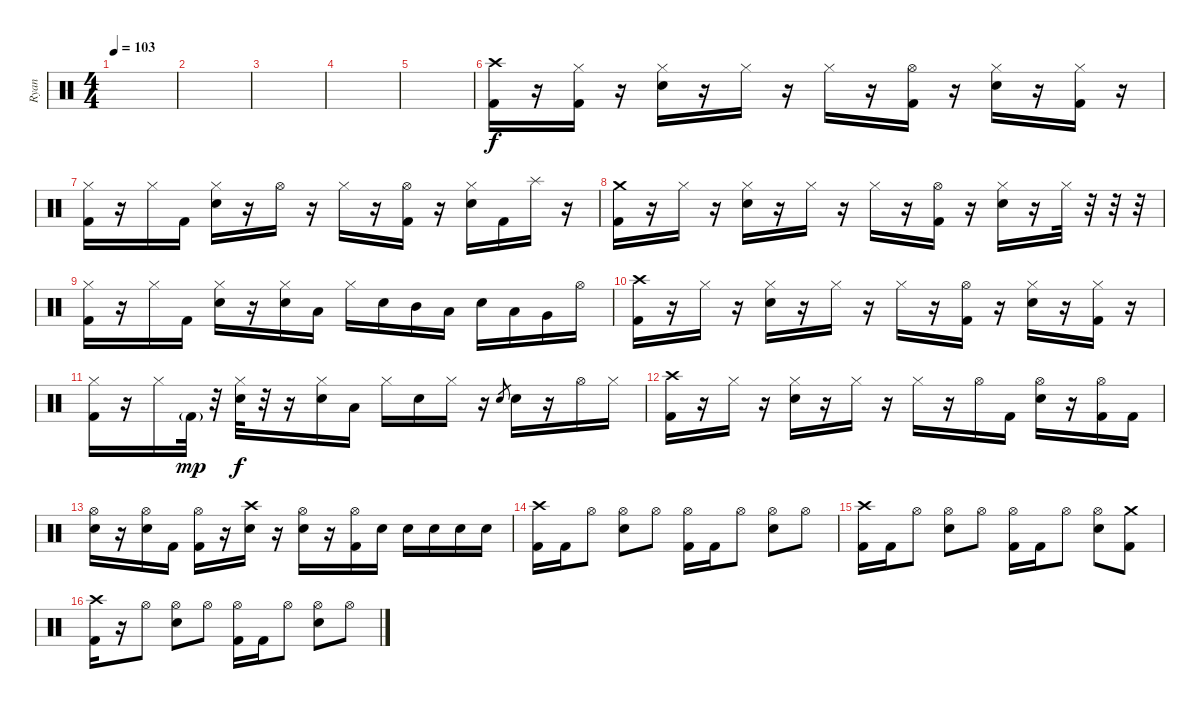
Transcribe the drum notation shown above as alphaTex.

\track ("Ryan" "Ryan") {instrument percussion}
\staff {score}
\articulation defaults
\ts (4 4)
\tempo 103
\clef neutral
\ks c
|
|
|
|
|
("Crash high (hit)" "Kick (hit) 2").16 r.16 ("Hi-Hat (closed)" "Kick (hit) 2").16 r.16 ("Hi-Hat (closed)" "Electric Snare (hit)").16 r.16 "Hi-Hat (closed)".16 r.16 "Hi-Hat (closed)".16 r.16 ("Hi-Hat (open)" "Kick (hit) 2").16 r.16 ("Hi-Hat (closed)" "Electric Snare (hit)").16 r.16 ("Hi-Hat (closed)" "Kick (hit) 2").16 r.16 |
("Hi-Hat (closed)" "Kick (hit) 2").16 r.16 "Hi-Hat (closed)".16 "Kick (hit) 2".16 ("Hi-Hat (closed)" "Electric Snare (hit)").16 r.16 "Hi-Hat (open)".16 r.16 "Hi-Hat (closed)".16 r.16 ("Hi-Hat (open)" "Kick (hit) 2").16 r.16 ("Hi-Hat (closed)" "Electric Snare (hit)").16 "Kick (hit) 2".16 "Splash (hit)".16 r.16 |
("Crash medium (hit)" "Kick (hit) 2").16 r.16 "Hi-Hat (closed)".16 r.16 ("Hi-Hat (closed)" "Electric Snare (hit)").16 r.16 "Hi-Hat (closed)".16 r.16 "Hi-Hat (closed)".16 r.16 ("Hi-Hat (open)" "Kick (hit) 2").16 r.16 ("Hi-Hat (closed)" "Electric Snare (hit)").16 r.16 "Hi-Hat (closed)".32 r.32 r.32 r.32 |
("Hi-Hat (closed)" "Kick (hit) 2").16 r.16 "Hi-Hat (closed)".16 "Kick (hit) 2".16 ("Hi-Hat (closed)" "Electric Snare (hit)").16 r.16 ("Hi-Hat (closed)" "Electric Snare (hit)").16 "Low Tom (hit)".16 "Hi-Hat (closed)".16 "Electric Snare (hit)".16 "Mid Tom (hit)".16 "Low Tom (hit)".16 "Electric Snare (hit)".16 "Low Tom (hit)".16 "Very Low Tom (hit)".16 "Hi-Hat (open)".16 |
("Crash high (hit)" "Kick (hit) 2").16 r.16 "Hi-Hat (closed)".16 r.16 ("Hi-Hat (closed)" "Electric Snare (hit)").16 r.16 "Hi-Hat (closed)".16 r.16 "Hi-Hat (closed)".16 r.16 ("Hi-Hat (open)" "Kick (hit) 2").16 r.16 ("Hi-Hat (closed)" "Electric Snare (hit)").16 r.16 ("Hi-Hat (closed)" "Kick (hit) 2").16 r.16 |
("Hi-Hat (closed)" "Kick (hit) 2").16 r.16 "Hi-Hat (closed)".16 "Kick (hit) 2"{g}.32{dy mp} r.32 ("Hi-Hat (closed)" "Electric Snare (hit)").32{dy f} r.32 r.16 ("Hi-Hat (closed)" "Electric Snare (hit)").16 "Low Tom (hit)".16 "Hi-Hat (closed)".16 "Electric Snare (hit)".16 "Hi-Hat (closed)".16 r.16 "Electric Snare (hit)".8{gr} "Electric Snare (hit)".16 r.16 "Hi-Hat (open)".16 "Hi-Hat (closed)".16 |
("Crash high (hit)" "Kick (hit) 2").16 r.16 "Hi-Hat (closed)".16 r.16 ("Hi-Hat (closed)" "Electric Snare (hit)").16 r.16 "Hi-Hat (closed)".16 r.16 "Hi-Hat (closed)".16 r.16 "Hi-Hat (open)".16 "Kick (hit) 2".16 ("Hi-Hat (open)" "Electric Snare (hit)").16 r.16 ("Hi-Hat (open)" "Kick (hit) 2").16 "Kick (hit) 2".16 |
("Hi-Hat (open)" "Electric Snare (hit)").16 r.16 ("Hi-Hat (open)" "Electric Snare (hit)").16 "Kick (hit) 2".16 ("Hi-Hat (open)" "Kick (hit) 2").16 r.16 ("Crash high (hit)" "Electric Snare (hit)").16 r.16 ("Hi-Hat (open)" "Electric Snare (hit)").16 r.16 ("Hi-Hat (open)" "Kick (hit) 2").16 "Electric Snare (hit)".16 "Electric Snare (hit)".16 "Electric Snare (hit)".16 "Electric Snare (hit)".16 "Electric Snare (hit)".16 |
("Crash high (hit)" "Kick (hit) 2").16 "Kick (hit) 2".16 "Hi-Hat (open)".8 ("Hi-Hat (open)" "Electric Snare (hit)").8 "Hi-Hat (open)".8 ("Hi-Hat (open)" "Kick (hit) 2").16 "Kick (hit) 2".16 "Hi-Hat (open)".8 ("Hi-Hat (open)" "Electric Snare (hit)").8 "Hi-Hat (open)".8 |
("Crash high (hit)" "Kick (hit) 2").16 "Kick (hit) 2".16 "Hi-Hat (open)".8 ("Hi-Hat (open)" "Electric Snare (hit)").8 "Hi-Hat (open)".8 ("Hi-Hat (open)" "Kick (hit) 2").16 "Kick (hit) 2".16 "Hi-Hat (open)".8 ("Hi-Hat (open)" "Electric Snare (hit)").8 ("Crash medium (hit)" "Kick (hit) 2").8 |
("Crash high (hit)" "Kick (hit) 2").16 r.16 "Hi-Hat (open)".8 ("Hi-Hat (open)" "Electric Snare (hit)").8 "Hi-Hat (open)".8 ("Hi-Hat (open)" "Kick (hit) 2").16 "Kick (hit) 2".16 "Hi-Hat (open)".8 ("Hi-Hat (open)" "Electric Snare (hit)").8 "Hi-Hat (open)".8
